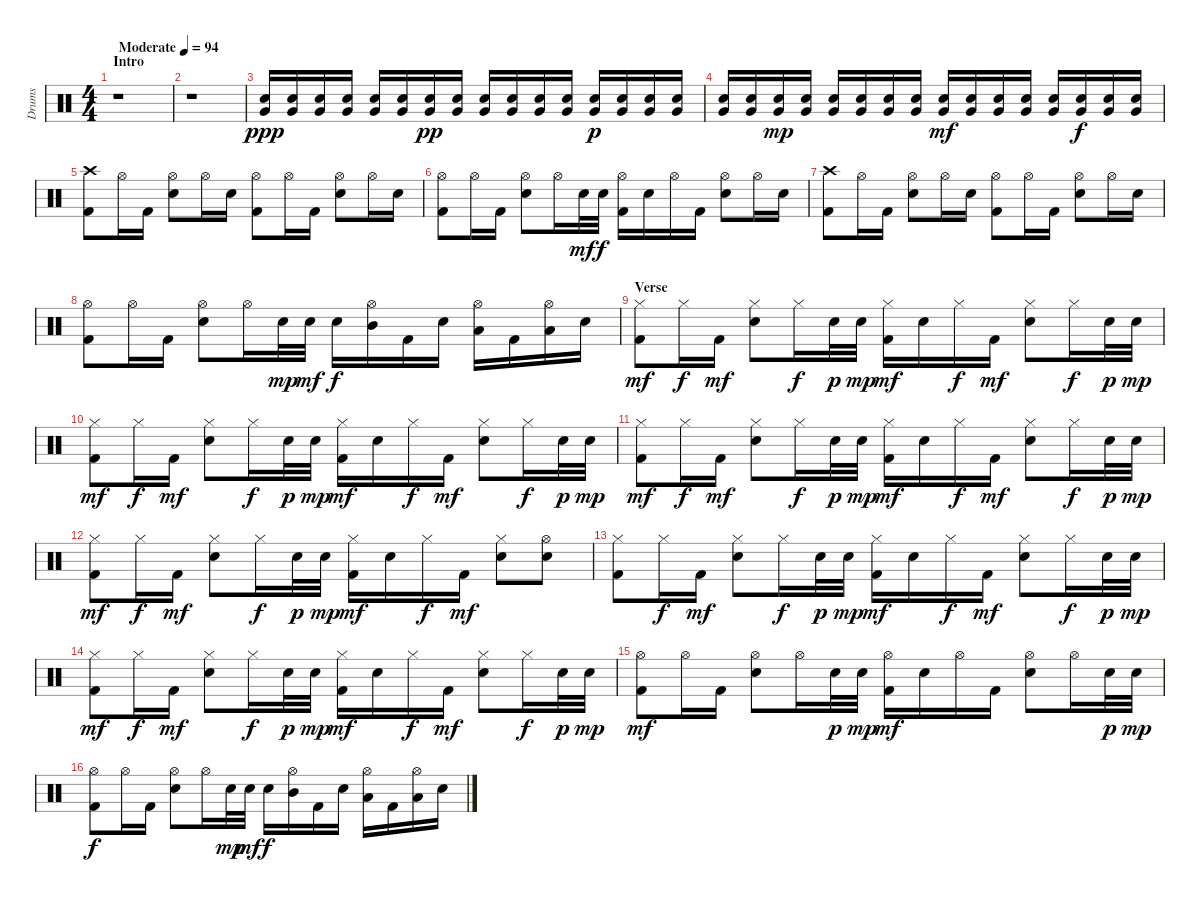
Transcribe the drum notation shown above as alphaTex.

\track ("Drums" "Drums") {instrument percussion}
\staff {score}
\articulation defaults
\ts (4 4)
\section ("" "Intro")
\tempo (94 "Moderate")
\clef neutral
\ks c
r.1{dy ppp} |
r.1 |
("Snare (hit) 2" "Very Low Tom (hit)").16 ("Snare (hit) 2" "Very Low Tom (hit)").16 ("Snare (hit) 2" "Very Low Tom (hit)").16 ("Snare (hit) 2" "Very Low Tom (hit)").16 ("Snare (hit) 2" "Very Low Tom (hit)").16 ("Snare (hit) 2" "Very Low Tom (hit)").16 ("Snare (hit) 2" "Very Low Tom (hit)").16{dy pp} ("Snare (hit) 2" "Very Low Tom (hit)").16 ("Snare (hit) 2" "Very Low Tom (hit)").16 ("Snare (hit) 2" "Very Low Tom (hit)").16 ("Snare (hit) 2" "Very Low Tom (hit)").16 ("Snare (hit) 2" "Very Low Tom (hit)").16 ("Snare (hit) 2" "Very Low Tom (hit)").16{dy p} ("Snare (hit) 2" "Very Low Tom (hit)").16 ("Snare (hit) 2" "Very Low Tom (hit)").16 ("Snare (hit) 2" "Very Low Tom (hit)").16 |
("Snare (hit) 2" "Very Low Tom (hit)").16 ("Snare (hit) 2" "Very Low Tom (hit)").16 ("Snare (hit) 2" "Very Low Tom (hit)").16{dy mp} ("Snare (hit) 2" "Very Low Tom (hit)").16 ("Snare (hit) 2" "Very Low Tom (hit)").16 ("Snare (hit) 2" "Very Low Tom (hit)").16 ("Snare (hit) 2" "Very Low Tom (hit)").16 ("Snare (hit) 2" "Very Low Tom (hit)").16 ("Snare (hit) 2" "Very Low Tom (hit)").16{dy mf} ("Snare (hit) 2" "Very Low Tom (hit)").16 ("Snare (hit) 2" "Very Low Tom (hit)").16 ("Snare (hit) 2" "Very Low Tom (hit)").16 ("Snare (hit) 2" "Very Low Tom (hit)").16 ("Snare (hit) 2" "Very Low Tom (hit)").16{dy f} ("Snare (hit) 2" "Very Low Tom (hit)").16 ("Snare (hit) 2" "Very Low Tom (hit)").16 |
("Crash high (hit)" "Kick (hit) 2").8 "Hi-Hat (open)".16 "Kick (hit) 2".16 ("Hi-Hat (open)" "Snare (hit) 2").8 "Hi-Hat (open)".16 "Snare (hit) 2".16 ("Hi-Hat (open)" "Kick (hit) 2").8 "Hi-Hat (open)".16 "Kick (hit) 2".16 ("Hi-Hat (open)" "Snare (hit) 2").8 "Hi-Hat (open)".16 "Snare (hit) 2".16 |
("Hi-Hat (open)" "Kick (hit) 2").8 "Hi-Hat (open)".16 "Kick (hit) 2".16 ("Hi-Hat (open)" "Snare (hit) 2").8 "Hi-Hat (open)".16 "Snare (hit) 2".32{dy mf} "Snare (hit) 2".32{dy f} ("Hi-Hat (open)" "Kick (hit) 2").16 "Snare (hit) 2".16 "Hi-Hat (open)".16 "Kick (hit) 2".16 ("Hi-Hat (open)" "Snare (hit) 2").8 "Hi-Hat (open)".16 "Snare (hit) 2".16 |
("Crash high (hit)" "Kick (hit) 2").8 "Hi-Hat (open)".16 "Kick (hit) 2".16 ("Hi-Hat (open)" "Snare (hit) 2").8 "Hi-Hat (open)".16 "Snare (hit) 2".16 ("Hi-Hat (open)" "Kick (hit) 2").8 "Hi-Hat (open)".16 "Kick (hit) 2".16 ("Hi-Hat (open)" "Snare (hit) 2").8 "Hi-Hat (open)".16 "Snare (hit) 2".16 |
("Hi-Hat (open)" "Kick (hit) 2").8 "Hi-Hat (open)".16 "Kick (hit) 2".16 ("Hi-Hat (open)" "Snare (hit) 2").8 "Hi-Hat (open)".16 "Snare (hit) 2".32{dy mp} "Snare (hit) 2".32{dy mf} "Snare (hit) 2".16{dy f} ("Hi-Hat (open)" "Mid Tom (hit)").16 "Kick (hit) 2".16 "Snare (hit) 2".16 ("Hi-Hat (open)" "Low Tom (hit)").16 "Kick (hit) 2".16 ("Hi-Hat (open)" "Low Floor Tom (hit)").16 "Snare (hit) 2".16 |
\section ("" "Verse")
("Hi-Hat (closed)" "Kick (hit) 2").8{dy mf} "Hi-Hat (closed)".16{dy f} "Kick (hit) 2".16{dy mf} ("Hi-Hat (closed)" "Snare (hit) 2").8 "Hi-Hat (closed)".16{dy f} "Snare (hit) 2".32{dy p} "Snare (hit) 2".32{dy mp} ("Hi-Hat (closed)" "Kick (hit) 2").16{dy mf} "Snare (hit) 2".16 "Hi-Hat (closed)".16{dy f} "Kick (hit) 2".16{dy mf} ("Hi-Hat (closed)" "Snare (hit) 2").8 "Hi-Hat (closed)".16{dy f} "Snare (hit) 2".32{dy p} "Snare (hit) 2".32{dy mp} |
("Hi-Hat (closed)" "Kick (hit) 2").8{dy mf} "Hi-Hat (closed)".16{dy f} "Kick (hit) 2".16{dy mf} ("Hi-Hat (closed)" "Snare (hit) 2").8 "Hi-Hat (closed)".16{dy f} "Snare (hit) 2".32{dy p} "Snare (hit) 2".32{dy mp} ("Hi-Hat (closed)" "Kick (hit) 2").16{dy mf} "Snare (hit) 2".16 "Hi-Hat (closed)".16{dy f} "Kick (hit) 2".16{dy mf} ("Hi-Hat (closed)" "Snare (hit) 2").8 "Hi-Hat (closed)".16{dy f} "Snare (hit) 2".32{dy p} "Snare (hit) 2".32{dy mp} |
("Hi-Hat (closed)" "Kick (hit) 2").8{dy mf} "Hi-Hat (closed)".16{dy f} "Kick (hit) 2".16{dy mf} ("Hi-Hat (closed)" "Snare (hit) 2").8 "Hi-Hat (closed)".16{dy f} "Snare (hit) 2".32{dy p} "Snare (hit) 2".32{dy mp} ("Hi-Hat (closed)" "Kick (hit) 2").16{dy mf} "Snare (hit) 2".16 "Hi-Hat (closed)".16{dy f} "Kick (hit) 2".16{dy mf} ("Hi-Hat (closed)" "Snare (hit) 2").8 "Hi-Hat (closed)".16{dy f} "Snare (hit) 2".32{dy p} "Snare (hit) 2".32{dy mp} |
("Hi-Hat (closed)" "Kick (hit) 2").8{dy mf} "Hi-Hat (closed)".16{dy f} "Kick (hit) 2".16{dy mf} ("Hi-Hat (closed)" "Snare (hit) 2").8 "Hi-Hat (closed)".16{dy f} "Snare (hit) 2".32{dy p} "Snare (hit) 2".32{dy mp} ("Hi-Hat (closed)" "Kick (hit) 2").16{dy mf} "Snare (hit) 2".16 "Hi-Hat (closed)".16{dy f} "Kick (hit) 2".16{dy mf} ("Hi-Hat (closed)" "Snare (hit) 2").8 ("Hi-Hat (open)" "Snare (hit) 2").8 |
("Hi-Hat (closed)" "Kick (hit) 2").8 "Hi-Hat (closed)".16{dy f} "Kick (hit) 2".16{dy mf} ("Hi-Hat (closed)" "Snare (hit) 2").8 "Hi-Hat (closed)".16{dy f} "Snare (hit) 2".32{dy p} "Snare (hit) 2".32{dy mp} ("Hi-Hat (closed)" "Kick (hit) 2").16{dy mf} "Snare (hit) 2".16 "Hi-Hat (closed)".16{dy f} "Kick (hit) 2".16{dy mf} ("Hi-Hat (closed)" "Snare (hit) 2").8 "Hi-Hat (closed)".16{dy f} "Snare (hit) 2".32{dy p} "Snare (hit) 2".32{dy mp} |
("Hi-Hat (closed)" "Kick (hit) 2").8{dy mf} "Hi-Hat (closed)".16{dy f} "Kick (hit) 2".16{dy mf} ("Hi-Hat (closed)" "Snare (hit) 2").8 "Hi-Hat (closed)".16{dy f} "Snare (hit) 2".32{dy p} "Snare (hit) 2".32{dy mp} ("Hi-Hat (closed)" "Kick (hit) 2").16{dy mf} "Snare (hit) 2".16 "Hi-Hat (closed)".16{dy f} "Kick (hit) 2".16{dy mf} ("Hi-Hat (closed)" "Snare (hit) 2").8 "Hi-Hat (closed)".16{dy f} "Snare (hit) 2".32{dy p} "Snare (hit) 2".32{dy mp} |
("Hi-Hat (open)" "Kick (hit) 2").8{dy mf} "Hi-Hat (open)".16 "Kick (hit) 2".16 ("Hi-Hat (open)" "Snare (hit) 2").8 "Hi-Hat (open)".16 "Snare (hit) 2".32{dy p} "Snare (hit) 2".32{dy mp} ("Hi-Hat (open)" "Kick (hit) 2").16{dy mf} "Snare (hit) 2".16 "Hi-Hat (open)".16 "Kick (hit) 2".16 ("Hi-Hat (open)" "Snare (hit) 2").8 "Hi-Hat (open)".16 "Snare (hit) 2".32{dy p} "Snare (hit) 2".32{dy mp} |
("Hi-Hat (open)" "Kick (hit) 2").8{dy f} "Hi-Hat (open)".16 "Kick (hit) 2".16 ("Hi-Hat (open)" "Snare (hit) 2").8 "Hi-Hat (open)".16 "Snare (hit) 2".32{dy mp} "Snare (hit) 2".32{dy mf} "Snare (hit) 2".16{dy f} ("Hi-Hat (open)" "Mid Tom (hit)").16 "Kick (hit) 2".16 "Snare (hit) 2".16 ("Hi-Hat (open)" "Low Tom (hit)").16 "Kick (hit) 2".16 ("Hi-Hat (open)" "Low Floor Tom (hit)").16 "Snare (hit) 2".16
